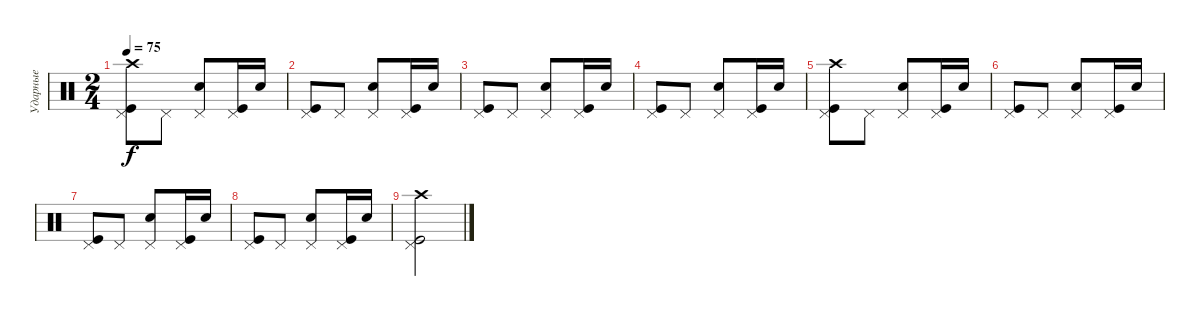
\track ("Ударные" "Ударные") {instrument percussion}
\staff {score}
\articulation defaults
\ts (2 4)
\tempo 75
\clef neutral
\ks c
("Pedal Hi-Hat (hit)" "Kick (hit)" "Crash high (hit)").8{dy f} "Pedal Hi-Hat (hit)".8 ("Pedal Hi-Hat (hit)" "Snare (hit) 2").8 ("Pedal Hi-Hat (hit)" "Kick (hit)").16 "Snare (hit) 2".16 |
("Pedal Hi-Hat (hit)" "Kick (hit)").8 "Pedal Hi-Hat (hit)".8 ("Pedal Hi-Hat (hit)" "Snare (hit) 2").8 ("Pedal Hi-Hat (hit)" "Kick (hit)").16 "Snare (hit) 2".16 |
("Pedal Hi-Hat (hit)" "Kick (hit)").8 "Pedal Hi-Hat (hit)".8 ("Pedal Hi-Hat (hit)" "Snare (hit) 2").8 ("Pedal Hi-Hat (hit)" "Kick (hit)").16 "Snare (hit) 2".16 |
("Pedal Hi-Hat (hit)" "Kick (hit)").8 "Pedal Hi-Hat (hit)".8 ("Pedal Hi-Hat (hit)" "Snare (hit) 2").8 ("Pedal Hi-Hat (hit)" "Kick (hit)").16 "Snare (hit) 2".16 |
("Pedal Hi-Hat (hit)" "Kick (hit)" "Crash high (hit)").8 "Pedal Hi-Hat (hit)".8 ("Pedal Hi-Hat (hit)" "Snare (hit) 2").8 ("Pedal Hi-Hat (hit)" "Kick (hit)").16 "Snare (hit) 2".16 |
("Pedal Hi-Hat (hit)" "Kick (hit)").8 "Pedal Hi-Hat (hit)".8 ("Pedal Hi-Hat (hit)" "Snare (hit) 2").8 ("Pedal Hi-Hat (hit)" "Kick (hit)").16 "Snare (hit) 2".16 |
("Pedal Hi-Hat (hit)" "Kick (hit)").8 "Pedal Hi-Hat (hit)".8 ("Pedal Hi-Hat (hit)" "Snare (hit) 2").8 ("Pedal Hi-Hat (hit)" "Kick (hit)").16 "Snare (hit) 2".16 |
("Pedal Hi-Hat (hit)" "Kick (hit)").8 "Pedal Hi-Hat (hit)".8 ("Pedal Hi-Hat (hit)" "Snare (hit) 2").8 ("Pedal Hi-Hat (hit)" "Kick (hit)").16 "Snare (hit) 2".16 |
("Pedal Hi-Hat (hit)" "Kick (hit)" "Crash high (hit)").2
